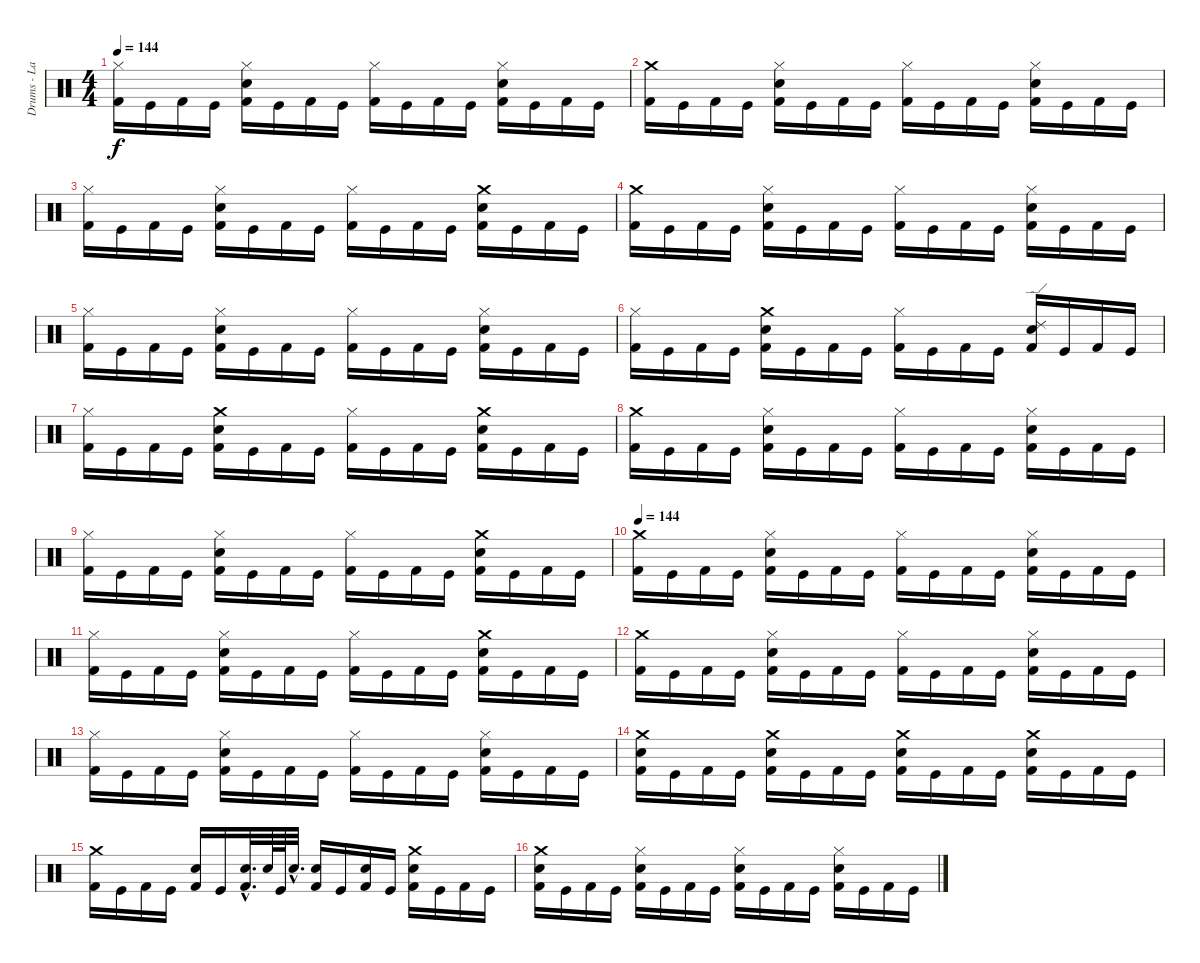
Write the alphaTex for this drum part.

\track ("Drums - Lars" "Drums - La") {instrument percussion}
\staff {score}
\articulation defaults
\ts (4 4)
\tempo 144
\clef neutral
\ks c
("Hi-Hat (closed)" "Kick (hit) 2").16{dy f} "Kick (hit)".16 "Kick (hit) 2".16 "Kick (hit)".16 ("Snare (hit) 2" "Hi-Hat (closed)" "Kick (hit) 2").16 "Kick (hit)".16 "Kick (hit) 2".16 "Kick (hit)".16 ("Hi-Hat (closed)" "Kick (hit) 2").16 "Kick (hit)".16 "Kick (hit) 2".16 "Kick (hit)".16 ("Snare (hit) 2" "Hi-Hat (closed)" "Kick (hit) 2").16 "Kick (hit)".16 "Kick (hit) 2".16 "Kick (hit)".16 |
("Crash medium (hit)" "Kick (hit) 2").16 "Kick (hit)".16 "Kick (hit) 2".16 "Kick (hit)".16 ("Snare (hit) 2" "Hi-Hat (closed)" "Kick (hit) 2").16 "Kick (hit)".16 "Kick (hit) 2".16 "Kick (hit)".16 ("Hi-Hat (closed)" "Kick (hit) 2").16 "Kick (hit)".16 "Kick (hit) 2".16 "Kick (hit)".16 ("Snare (hit) 2" "Hi-Hat (closed)" "Kick (hit) 2").16 "Kick (hit)".16 "Kick (hit) 2".16 "Kick (hit)".16 |
("Hi-Hat (closed)" "Kick (hit) 2").16 "Kick (hit)".16 "Kick (hit) 2".16 "Kick (hit)".16 ("Snare (hit) 2" "Hi-Hat (closed)" "Kick (hit) 2").16 "Kick (hit)".16 "Kick (hit) 2".16 "Kick (hit)".16 ("Hi-Hat (closed)" "Kick (hit) 2").16 "Kick (hit)".16 "Kick (hit) 2".16 "Kick (hit)".16 ("Crash medium (hit)" "Snare (hit) 2" "Kick (hit) 2").16 "Kick (hit)".16 "Kick (hit) 2".16 "Kick (hit)".16 |
("Crash medium (hit)" "Kick (hit) 2").16 "Kick (hit)".16 "Kick (hit) 2".16 "Kick (hit)".16 ("Snare (hit) 2" "Hi-Hat (closed)" "Kick (hit) 2").16 "Kick (hit)".16 "Kick (hit) 2".16 "Kick (hit)".16 ("Hi-Hat (closed)" "Kick (hit) 2").16 "Kick (hit)".16 "Kick (hit) 2".16 "Kick (hit)".16 ("Snare (hit) 2" "Hi-Hat (closed)" "Kick (hit) 2").16 "Kick (hit)".16 "Kick (hit) 2".16 "Kick (hit)".16 |
("Hi-Hat (closed)" "Kick (hit) 2").16 "Kick (hit)".16 "Kick (hit) 2".16 "Kick (hit)".16 ("Snare (hit) 2" "Hi-Hat (closed)" "Kick (hit) 2").16 "Kick (hit)".16 "Kick (hit) 2".16 "Kick (hit)".16 ("Hi-Hat (closed)" "Kick (hit) 2").16 "Kick (hit)".16 "Kick (hit) 2".16 "Kick (hit)".16 ("Snare (hit) 2" "Hi-Hat (closed)" "Kick (hit) 2").16 "Kick (hit)".16 "Kick (hit) 2".16 "Kick (hit)".16 |
("Hi-Hat (closed)" "Kick (hit) 2").16 "Kick (hit)".16 "Kick (hit) 2".16 "Kick (hit)".16 ("Crash medium (hit)" "Snare (hit) 2" "Kick (hit) 2").16 "Kick (hit)".16 "Kick (hit) 2".16 "Kick (hit)".16 ("Hi-Hat (closed)" "Kick (hit) 2").16 "Kick (hit)".16 "Kick (hit) 2".16 "Kick (hit)".16 ("Ride (edge) 2" "Snare (hit) 2" "Kick (hit) 2").16 "Kick (hit)".16 "Kick (hit) 2".16 "Kick (hit)".16 |
("Hi-Hat (closed)" "Kick (hit) 2").16 "Kick (hit)".16 "Kick (hit) 2".16 "Kick (hit)".16 ("Crash medium (hit)" "Snare (hit) 2" "Kick (hit) 2").16 "Kick (hit)".16 "Kick (hit) 2".16 "Kick (hit)".16 ("Hi-Hat (closed)" "Kick (hit) 2").16 "Kick (hit)".16 "Kick (hit) 2".16 "Kick (hit)".16 ("Crash medium (hit)" "Snare (hit) 2" "Kick (hit) 2").16 "Kick (hit)".16 "Kick (hit) 2".16 "Kick (hit)".16 |
("Crash medium (hit)" "Kick (hit) 2").16 "Kick (hit)".16 "Kick (hit) 2".16 "Kick (hit)".16 ("Snare (hit) 2" "Hi-Hat (closed)" "Kick (hit) 2").16 "Kick (hit)".16 "Kick (hit) 2".16 "Kick (hit)".16 ("Hi-Hat (closed)" "Kick (hit) 2").16 "Kick (hit)".16 "Kick (hit) 2".16 "Kick (hit)".16 ("Snare (hit) 2" "Hi-Hat (closed)" "Kick (hit) 2").16 "Kick (hit)".16 "Kick (hit) 2".16 "Kick (hit)".16 |
("Hi-Hat (closed)" "Kick (hit) 2").16 "Kick (hit)".16 "Kick (hit) 2".16 "Kick (hit)".16 ("Snare (hit) 2" "Hi-Hat (closed)" "Kick (hit) 2").16 "Kick (hit)".16 "Kick (hit) 2".16 "Kick (hit)".16 ("Hi-Hat (closed)" "Kick (hit) 2").16 "Kick (hit)".16 "Kick (hit) 2".16 "Kick (hit)".16 ("Crash medium (hit)" "Snare (hit) 2" "Kick (hit) 2").16 "Kick (hit)".16 "Kick (hit) 2".16 "Kick (hit)".16 |
\tempo 144
("Crash medium (hit)" "Kick (hit) 2").16 "Kick (hit)".16 "Kick (hit) 2".16 "Kick (hit)".16 ("Snare (hit) 2" "Hi-Hat (closed)" "Kick (hit) 2").16 "Kick (hit)".16 "Kick (hit) 2".16 "Kick (hit)".16 ("Hi-Hat (closed)" "Kick (hit) 2").16 "Kick (hit)".16 "Kick (hit) 2".16 "Kick (hit)".16 ("Snare (hit) 2" "Hi-Hat (closed)" "Kick (hit) 2").16 "Kick (hit)".16 "Kick (hit) 2".16 "Kick (hit)".16 |
("Hi-Hat (closed)" "Kick (hit) 2").16 "Kick (hit)".16 "Kick (hit) 2".16 "Kick (hit)".16 ("Snare (hit) 2" "Hi-Hat (closed)" "Kick (hit) 2").16 "Kick (hit)".16 "Kick (hit) 2".16 "Kick (hit)".16 ("Hi-Hat (closed)" "Kick (hit) 2").16 "Kick (hit)".16 "Kick (hit) 2".16 "Kick (hit)".16 ("Crash medium (hit)" "Snare (hit) 2" "Kick (hit) 2").16 "Kick (hit)".16 "Kick (hit) 2".16 "Kick (hit)".16 |
("Crash medium (hit)" "Kick (hit) 2").16 "Kick (hit)".16 "Kick (hit) 2".16 "Kick (hit)".16 ("Snare (hit) 2" "Hi-Hat (closed)" "Kick (hit) 2").16 "Kick (hit)".16 "Kick (hit) 2".16 "Kick (hit)".16 ("Hi-Hat (closed)" "Kick (hit) 2").16 "Kick (hit)".16 "Kick (hit) 2".16 "Kick (hit)".16 ("Snare (hit) 2" "Hi-Hat (closed)" "Kick (hit) 2").16 "Kick (hit)".16 "Kick (hit) 2".16 "Kick (hit)".16 |
("Hi-Hat (closed)" "Kick (hit) 2").16 "Kick (hit)".16 "Kick (hit) 2".16 "Kick (hit)".16 ("Snare (hit) 2" "Hi-Hat (closed)" "Kick (hit) 2").16 "Kick (hit)".16 "Kick (hit) 2".16 "Kick (hit)".16 ("Hi-Hat (closed)" "Kick (hit) 2").16 "Kick (hit)".16 "Kick (hit) 2".16 "Kick (hit)".16 ("Snare (hit) 2" "Hi-Hat (closed)" "Kick (hit) 2").16 "Kick (hit)".16 "Kick (hit) 2".16 "Kick (hit)".16 |
("Crash medium (hit)" "Snare (hit) 2" "Kick (hit) 2").16 "Kick (hit)".16 "Kick (hit) 2".16 "Kick (hit)".16 ("Crash medium (hit)" "Snare (hit) 2" "Kick (hit) 2").16 "Kick (hit)".16 "Kick (hit) 2".16 "Kick (hit)".16 ("Crash medium (hit)" "Snare (hit) 2" "Kick (hit) 2").16 "Kick (hit)".16 "Kick (hit) 2".16 "Kick (hit)".16 ("Crash medium (hit)" "Snare (hit) 2" "Kick (hit) 2").16 "Kick (hit)".16 "Kick (hit) 2".16 "Kick (hit)".16 |
("Crash medium (hit)" "Kick (hit) 2").16 "Kick (hit)".16 "Kick (hit) 2".16 "Kick (hit)".16 ("Snare (hit) 2" "Kick (hit) 2").16 "Kick (hit)".16 ("Snare (hit) 2"{hac} "Kick (hit) 2"{hac}).32{d} "Snare (hit) 2".64 "Kick (hit)".64 "Snare (hit) 2"{hac}.32{d} ("Snare (hit) 2" "Kick (hit) 2").16 "Kick (hit)".16 ("Snare (hit) 2" "Kick (hit) 2").16 "Kick (hit)".16 ("Snare (hit) 2" "Crash medium (hit)" "Kick (hit) 2").16 "Kick (hit)".16 "Kick (hit) 2".16 "Kick (hit)".16 |
("Snare (hit) 2" "Crash medium (hit)" "Kick (hit) 2").16 "Kick (hit)".16 "Kick (hit) 2".16 "Kick (hit)".16 ("Hi-Hat (closed)" "Snare (hit) 2" "Kick (hit) 2").16 "Kick (hit)".16 "Kick (hit) 2".16 "Kick (hit)".16 ("Hi-Hat (closed)" "Snare (hit) 2" "Kick (hit) 2").16 "Kick (hit)".16 "Kick (hit) 2".16 "Kick (hit)".16 ("Hi-Hat (closed)" "Snare (hit) 2" "Kick (hit) 2").16 "Kick (hit)".16 "Kick (hit) 2".16 "Kick (hit)".16
